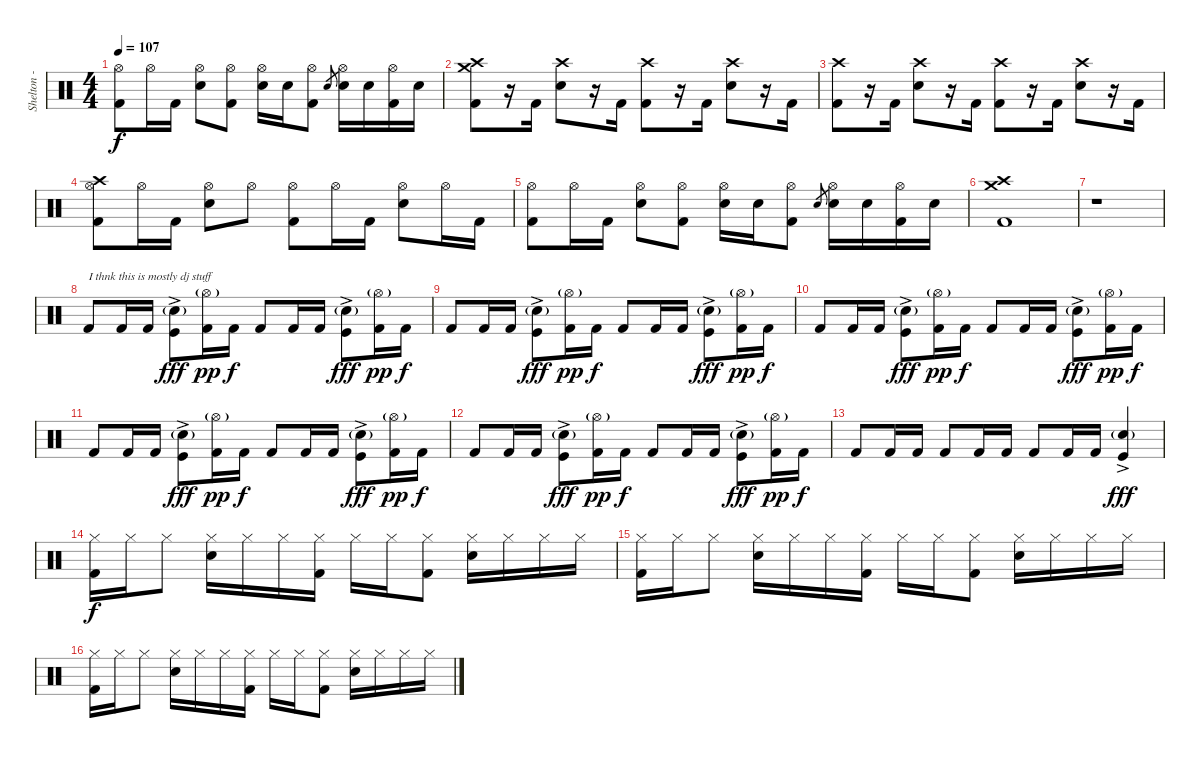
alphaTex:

\track ("Shelton - Drums" "Shelton - ") {instrument percussion}
\staff {score}
\articulation defaults
\ts (4 4)
\tempo 107
\clef neutral
\ks c
("Hi-Hat (open)" "Kick (hit) 2").8{dy f} "Hi-Hat (open)".16 "Kick (hit) 2".16 ("Hi-Hat (open)" "Electric Snare (hit)").8 ("Hi-Hat (open)" "Kick (hit) 2").8 ("Hi-Hat (open)" "Electric Snare (hit)").16 "Electric Snare (hit)".16 ("Hi-Hat (open)" "Kick (hit) 2").8 "Electric Snare (hit)".8{gr} ("Hi-Hat (open)" "Electric Snare (hit)").16 "Electric Snare (hit)".16 ("Hi-Hat (open)" "Kick (hit) 2").16 "Electric Snare (hit)".16 |
("Crash high (hit)" "Crash medium (hit)" "Kick (hit) 2").8 r.16 "Kick (hit) 2".16 ("Crash high (hit)" "Electric Snare (hit)").8 r.16 "Kick (hit) 2".16 ("Crash high (hit)" "Kick (hit) 2").8 r.16 "Kick (hit) 2".16 ("Crash high (hit)" "Electric Snare (hit)").8 r.16 "Kick (hit) 2".16 |
("Crash high (hit)" "Kick (hit) 2").8 r.16 "Kick (hit) 2".16 ("Crash high (hit)" "Electric Snare (hit)").8 r.16 "Kick (hit) 2".16 ("Crash high (hit)" "Kick (hit) 2").8 r.16 "Kick (hit) 2".16 ("Crash high (hit)" "Electric Snare (hit)").8 r.16 "Kick (hit) 2".16 |
("Hi-Hat (open)" "Crash high (hit)" "Kick (hit) 2").8 "Hi-Hat (open)".16 "Kick (hit) 2".16 ("Hi-Hat (open)" "Electric Snare (hit)").8 "Hi-Hat (open)".8 ("Hi-Hat (open)" "Kick (hit) 2").8 "Hi-Hat (open)".16 "Kick (hit) 2".16 ("Hi-Hat (open)" "Electric Snare (hit)").8 "Hi-Hat (open)".16 "Kick (hit) 2".16 |
("Hi-Hat (open)" "Kick (hit) 2").8 "Hi-Hat (open)".16 "Kick (hit) 2".16 ("Hi-Hat (open)" "Electric Snare (hit)").8 ("Hi-Hat (open)" "Kick (hit) 2").8 ("Hi-Hat (open)" "Electric Snare (hit)").16 "Electric Snare (hit)".16 ("Hi-Hat (open)" "Kick (hit) 2").8 "Electric Snare (hit)".8{gr} ("Hi-Hat (open)" "Electric Snare (hit)").16 "Electric Snare (hit)".16 ("Hi-Hat (open)" "Kick (hit) 2").16 "Electric Snare (hit)".16 |
("Crash high (hit)" "Crash medium (hit)" "Kick (hit) 2").1{volume 12} |
r.1 |
"Kick (hit) 2".8{txt "I thnk this is mostly dj stuff" volume 10} "Kick (hit) 2".16 "Kick (hit) 2".16 ("Snare (hit) 2"{g} "Kick (hit)"{ac}).8{dy fff} ("Hi-Hat (open)"{g} "Kick (hit) 2").16{dy pp} "Kick (hit) 2".16{dy f} "Kick (hit) 2".8 "Kick (hit) 2".16 "Kick (hit) 2".16 ("Snare (hit) 2"{g} "Kick (hit)"{ac}).8{dy fff} ("Hi-Hat (open)"{g} "Kick (hit) 2").16{dy pp} "Kick (hit) 2".16{dy f} |
"Kick (hit) 2".8{volume 10} "Kick (hit) 2".16 "Kick (hit) 2".16 ("Snare (hit) 2"{g} "Kick (hit)"{ac}).8{dy fff} ("Hi-Hat (open)"{g} "Kick (hit) 2").16{dy pp} "Kick (hit) 2".16{dy f} "Kick (hit) 2".8 "Kick (hit) 2".16 "Kick (hit) 2".16 ("Snare (hit) 2"{g} "Kick (hit)"{ac}).8{dy fff} ("Hi-Hat (open)"{g} "Kick (hit) 2").16{dy pp} "Kick (hit) 2".16{dy f} |
"Kick (hit) 2".8{volume 10} "Kick (hit) 2".16 "Kick (hit) 2".16 ("Snare (hit) 2"{g} "Kick (hit)"{ac}).8{dy fff} ("Hi-Hat (open)"{g} "Kick (hit) 2").16{dy pp} "Kick (hit) 2".16{dy f} "Kick (hit) 2".8 "Kick (hit) 2".16 "Kick (hit) 2".16 ("Snare (hit) 2"{g} "Kick (hit)"{ac}).8{dy fff} ("Hi-Hat (open)"{g} "Kick (hit) 2").16{dy pp} "Kick (hit) 2".16{dy f} |
"Kick (hit) 2".8{volume 10} "Kick (hit) 2".16 "Kick (hit) 2".16 ("Snare (hit) 2"{g} "Kick (hit)"{ac}).8{dy fff} ("Hi-Hat (open)"{g} "Kick (hit) 2").16{dy pp} "Kick (hit) 2".16{dy f} "Kick (hit) 2".8 "Kick (hit) 2".16 "Kick (hit) 2".16 ("Snare (hit) 2"{g} "Kick (hit)"{ac}).8{dy fff} ("Hi-Hat (open)"{g} "Kick (hit) 2").16{dy pp} "Kick (hit) 2".16{dy f} |
"Kick (hit) 2".8{volume 10} "Kick (hit) 2".16 "Kick (hit) 2".16 ("Snare (hit) 2"{g} "Kick (hit)"{ac}).8{dy fff} ("Hi-Hat (open)"{g} "Kick (hit) 2").16{dy pp} "Kick (hit) 2".16{dy f} "Kick (hit) 2".8 "Kick (hit) 2".16 "Kick (hit) 2".16 ("Snare (hit) 2"{g} "Kick (hit)"{ac}).8{dy fff} ("Hi-Hat (open)"{g} "Kick (hit) 2").16{dy pp} "Kick (hit) 2".16{dy f} |
"Kick (hit) 2".8{volume 10} "Kick (hit) 2".16 "Kick (hit) 2".16 "Kick (hit) 2".8 "Kick (hit) 2".16 "Kick (hit) 2".16 "Kick (hit) 2".8 "Kick (hit) 2".16 "Kick (hit) 2".16 ("Snare (hit) 2"{g} "Kick (hit)"{ac}).4{dy fff} |
("Hi-Hat (closed)" "Kick (hit) 2").16{dy f volume 15} "Hi-Hat (closed)".16 "Hi-Hat (closed)".8 ("Hi-Hat (closed)" "Electric Snare (hit)").16 "Hi-Hat (closed)".16 "Hi-Hat (closed)".16 ("Hi-Hat (closed)" "Kick (hit) 2").16 "Hi-Hat (closed)".16 "Hi-Hat (closed)".16 ("Hi-Hat (closed)" "Kick (hit) 2").8 ("Hi-Hat (closed)" "Electric Snare (hit)").16 "Hi-Hat (closed)".16 "Hi-Hat (closed)".16 "Hi-Hat (closed)".16 |
("Hi-Hat (closed)" "Kick (hit) 2").16 "Hi-Hat (closed)".16 "Hi-Hat (closed)".8 ("Hi-Hat (closed)" "Electric Snare (hit)").16 "Hi-Hat (closed)".16 "Hi-Hat (closed)".16 ("Hi-Hat (closed)" "Kick (hit) 2").16 "Hi-Hat (closed)".16 "Hi-Hat (closed)".16 ("Hi-Hat (closed)" "Kick (hit) 2").8 ("Hi-Hat (closed)" "Electric Snare (hit)").16 "Hi-Hat (closed)".16 "Hi-Hat (closed)".16 "Hi-Hat (closed)".16 |
("Hi-Hat (closed)" "Kick (hit) 2").16 "Hi-Hat (closed)".16 "Hi-Hat (closed)".8 ("Hi-Hat (closed)" "Electric Snare (hit)").16 "Hi-Hat (closed)".16 "Hi-Hat (closed)".16 ("Hi-Hat (closed)" "Kick (hit) 2").16 "Hi-Hat (closed)".16 "Hi-Hat (closed)".16 ("Hi-Hat (closed)" "Kick (hit) 2").8 ("Hi-Hat (closed)" "Electric Snare (hit)").16 "Hi-Hat (closed)".16 "Hi-Hat (closed)".16 "Hi-Hat (closed)".16
